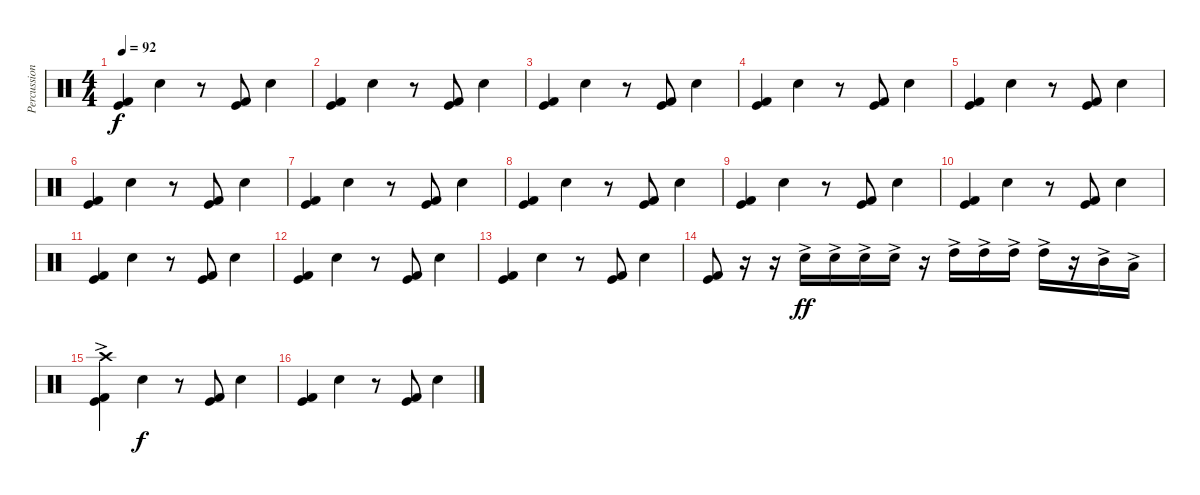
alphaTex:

\track ("Percussion" "Percussion") {instrument percussion}
\staff {score}
\articulation defaults
\ts (4 4)
\tempo 92
\clef neutral
\ks c
("Kick (hit)" "Kick (hit) 2").4{dy f} "Snare (hit) 2".4 r.8 ("Kick (hit)" "Kick (hit) 2").8 "Snare (hit) 2".4 |
("Kick (hit)" "Kick (hit) 2").4 "Snare (hit) 2".4 r.8 ("Kick (hit)" "Kick (hit) 2").8 "Snare (hit) 2".4 |
("Kick (hit)" "Kick (hit) 2").4 "Snare (hit) 2".4 r.8 ("Kick (hit)" "Kick (hit) 2").8 "Snare (hit) 2".4 |
("Kick (hit)" "Kick (hit) 2").4 "Snare (hit) 2".4 r.8 ("Kick (hit)" "Kick (hit) 2").8 "Snare (hit) 2".4 |
("Kick (hit)" "Kick (hit) 2").4 "Snare (hit) 2".4 r.8 ("Kick (hit)" "Kick (hit) 2").8 "Snare (hit) 2".4 |
("Kick (hit)" "Kick (hit) 2").4 "Snare (hit) 2".4 r.8 ("Kick (hit)" "Kick (hit) 2").8 "Snare (hit) 2".4 |
("Kick (hit)" "Kick (hit) 2").4 "Snare (hit) 2".4 r.8 ("Kick (hit)" "Kick (hit) 2").8 "Snare (hit) 2".4 |
("Kick (hit)" "Kick (hit) 2").4 "Snare (hit) 2".4 r.8 ("Kick (hit)" "Kick (hit) 2").8 "Snare (hit) 2".4 |
("Kick (hit)" "Kick (hit) 2").4 "Snare (hit) 2".4 r.8 ("Kick (hit)" "Kick (hit) 2").8 "Snare (hit) 2".4 |
("Kick (hit)" "Kick (hit) 2").4 "Snare (hit) 2".4 r.8 ("Kick (hit)" "Kick (hit) 2").8 "Snare (hit) 2".4 |
("Kick (hit)" "Kick (hit) 2").4 "Snare (hit) 2".4 r.8 ("Kick (hit)" "Kick (hit) 2").8 "Snare (hit) 2".4 |
("Kick (hit)" "Kick (hit) 2").4 "Snare (hit) 2".4 r.8 ("Kick (hit)" "Kick (hit) 2").8 "Snare (hit) 2".4 |
("Kick (hit)" "Kick (hit) 2").4 "Snare (hit) 2".4 r.8 ("Kick (hit)" "Kick (hit) 2").8 "Snare (hit) 2".4 |
("Kick (hit)" "Kick (hit) 2").8 r.16 r.16 "Snare (hit) 2"{ac}.16{dy ff} "Snare (hit) 2"{ac}.16 "Snare (hit) 2"{ac}.16 "Snare (hit) 2"{ac}.16 r.16 "High Tom (hit)"{ac}.16 "High Tom (hit)"{ac}.16 "High Tom (hit)"{ac}.16 "High Tom (hit)"{ac}.16 r.16 "Mid Tom (hit)"{ac}.16 "Low Tom (hit)"{ac}.16 |
("Crash high (hit)"{ac} "Kick (hit)" "Kick (hit) 2").4 "Snare (hit) 2".4{dy f} r.8 ("Kick (hit)" "Kick (hit) 2").8 "Snare (hit) 2".4 |
("Kick (hit)" "Kick (hit) 2").4 "Snare (hit) 2".4 r.8 ("Kick (hit)" "Kick (hit) 2").8 "Snare (hit) 2".4
